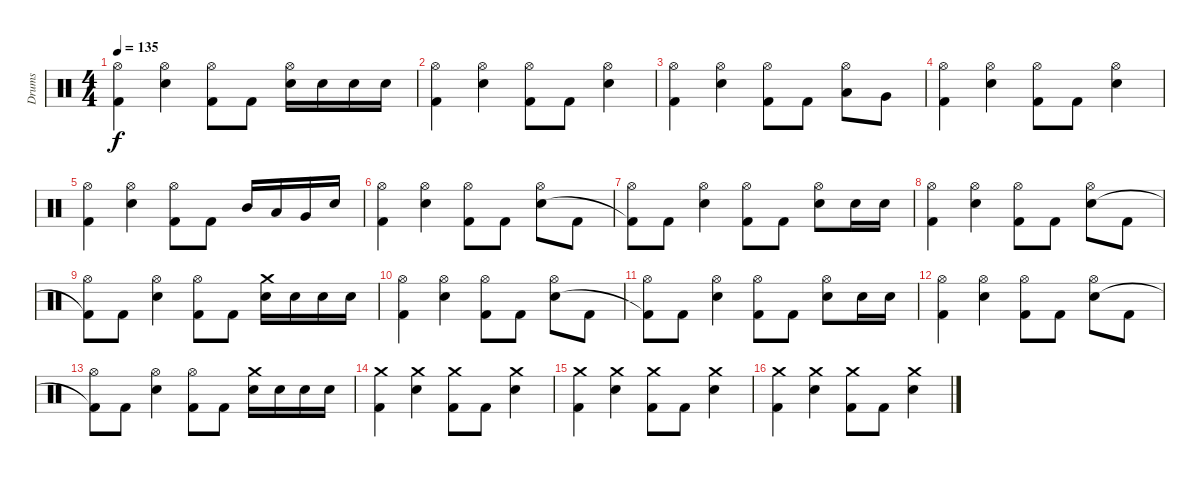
\track ("Drums" "Drums") {instrument percussion}
\staff {score}
\articulation defaults
\ts (4 4)
\tempo 135
\clef neutral
\ks c
("Hi-Hat (open)" "Kick (hit) 2").4{dy f} ("Hi-Hat (open)" "Electric Snare (hit)").4 ("Hi-Hat (open)" "Kick (hit) 2").8 "Kick (hit) 2".8 ("Hi-Hat (open)" "Electric Snare (hit)").16 "Electric Snare (hit)".16 "Electric Snare (hit)".16 "Electric Snare (hit)".16 |
("Hi-Hat (open)" "Kick (hit) 2").4 ("Hi-Hat (open)" "Electric Snare (hit)").4 ("Hi-Hat (open)" "Kick (hit) 2").8 "Kick (hit) 2".8 ("Hi-Hat (open)" "Electric Snare (hit)").4 |
("Hi-Hat (open)" "Kick (hit) 2").4 ("Hi-Hat (open)" "Electric Snare (hit)").4 ("Hi-Hat (open)" "Kick (hit) 2").8 "Kick (hit) 2".8 ("Hi-Hat (open)" "Low Tom (hit)").8 "Very Low Tom (hit)".8 |
("Hi-Hat (open)" "Kick (hit) 2").4 ("Hi-Hat (open)" "Electric Snare (hit)").4 ("Hi-Hat (open)" "Kick (hit) 2").8 "Kick (hit) 2".8 ("Hi-Hat (open)" "Electric Snare (hit)").4 |
("Hi-Hat (open)" "Kick (hit) 2").4 ("Hi-Hat (open)" "Electric Snare (hit)").4 ("Hi-Hat (open)" "Kick (hit) 2").8 "Kick (hit) 2".8 "Mid Tom (hit)".16 "Low Tom (hit)".16 "Very Low Tom (hit)".16 "Electric Snare (hit)".16 |
("Hi-Hat (open)" "Kick (hit) 2").4 ("Hi-Hat (open)" "Electric Snare (hit)").4 ("Hi-Hat (open)" "Kick (hit) 2").8 "Kick (hit) 2".8 ("Hi-Hat (open)" "Electric Snare (hit)").8 "Kick (hit) 2".8 |
("Hi-Hat (open)" "Kick (hit) 2"{t}).8 "Kick (hit) 2".8 ("Hi-Hat (open)" "Electric Snare (hit)").4 ("Hi-Hat (open)" "Kick (hit) 2").8 "Kick (hit) 2".8 ("Hi-Hat (open)" "Electric Snare (hit)").8 "Electric Snare (hit)".16 "Electric Snare (hit)".16 |
("Hi-Hat (open)" "Kick (hit) 2").4 ("Hi-Hat (open)" "Electric Snare (hit)").4 ("Hi-Hat (open)" "Kick (hit) 2").8 "Kick (hit) 2".8 ("Hi-Hat (open)" "Electric Snare (hit)").8 "Kick (hit) 2".8 |
("Hi-Hat (open)" "Kick (hit) 2"{t}).8 "Kick (hit) 2".8 ("Hi-Hat (open)" "Electric Snare (hit)").4 ("Hi-Hat (open)" "Kick (hit) 2").8 "Kick (hit) 2".8 ("Crash medium (hit)" "Electric Snare (hit)").16 "Electric Snare (hit)".16 "Electric Snare (hit)".16 "Electric Snare (hit)".16 |
("Hi-Hat (open)" "Kick (hit) 2").4 ("Hi-Hat (open)" "Electric Snare (hit)").4 ("Hi-Hat (open)" "Kick (hit) 2").8 "Kick (hit) 2".8 ("Hi-Hat (open)" "Electric Snare (hit)").8 "Kick (hit) 2".8 |
("Hi-Hat (open)" "Kick (hit) 2"{t}).8 "Kick (hit) 2".8 ("Hi-Hat (open)" "Electric Snare (hit)").4 ("Hi-Hat (open)" "Kick (hit) 2").8 "Kick (hit) 2".8 ("Hi-Hat (open)" "Electric Snare (hit)").8 "Electric Snare (hit)".16 "Electric Snare (hit)".16 |
("Hi-Hat (open)" "Kick (hit) 2").4 ("Hi-Hat (open)" "Electric Snare (hit)").4 ("Hi-Hat (open)" "Kick (hit) 2").8 "Kick (hit) 2".8 ("Hi-Hat (open)" "Electric Snare (hit)").8 "Kick (hit) 2".8 |
("Hi-Hat (open)" "Kick (hit) 2"{t}).8 "Kick (hit) 2".8 ("Hi-Hat (open)" "Electric Snare (hit)").4 ("Hi-Hat (open)" "Kick (hit) 2").8 "Kick (hit) 2".8 ("Crash medium (hit)" "Electric Snare (hit)").16 "Electric Snare (hit)".16 "Electric Snare (hit)".16 "Electric Snare (hit)".16 |
("Crash medium (hit)" "Kick (hit) 2").4 ("Crash medium (hit)" "Electric Snare (hit)").4 ("Crash medium (hit)" "Kick (hit) 2").8 "Kick (hit) 2".8 ("Crash medium (hit)" "Electric Snare (hit)").4 |
("Crash medium (hit)" "Kick (hit) 2").4 ("Crash medium (hit)" "Electric Snare (hit)").4 ("Crash medium (hit)" "Kick (hit) 2").8 "Kick (hit) 2".8 ("Crash medium (hit)" "Electric Snare (hit)").4 |
("Crash medium (hit)" "Kick (hit) 2").4 ("Crash medium (hit)" "Electric Snare (hit)").4 ("Crash medium (hit)" "Kick (hit) 2").8 "Kick (hit) 2".8 ("Crash medium (hit)" "Electric Snare (hit)").4
